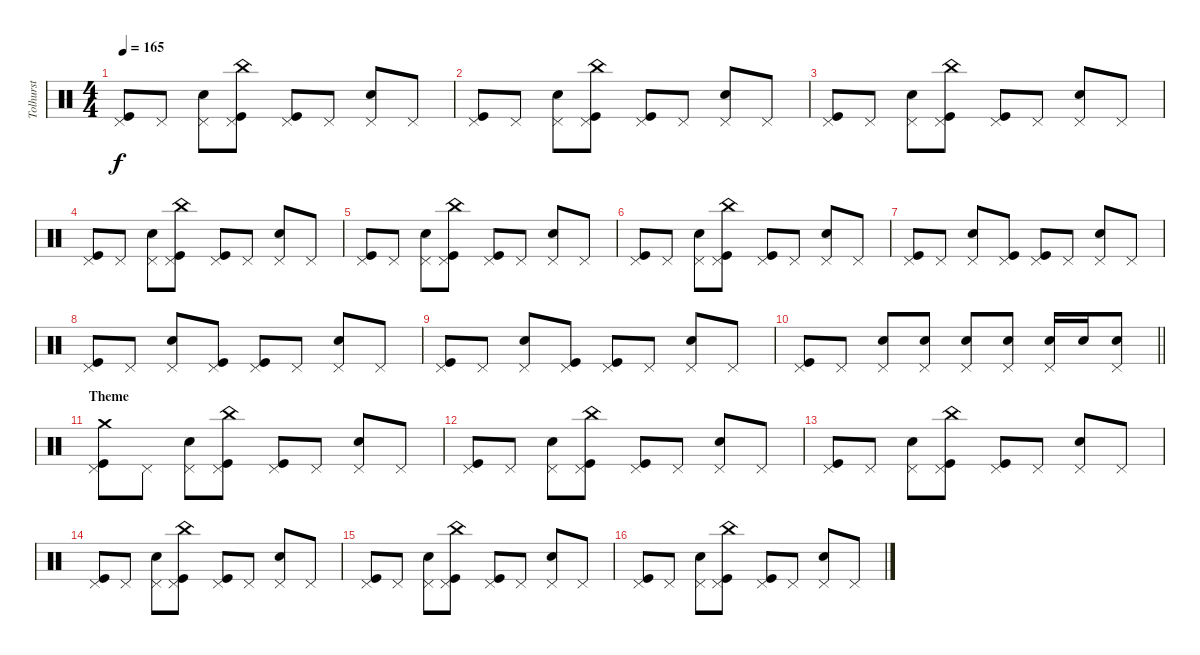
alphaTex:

\track ("Tolhurst" "Tolhurst") {instrument percussion}
\staff {score}
\articulation defaults
\ts (4 4)
\tempo 165
\clef neutral
\ks c
("Pedal Hi-Hat (hit)" "Kick (hit)").8{dy f} "Pedal Hi-Hat (hit)".8 ("Pedal Hi-Hat (hit)" "Snare (hit) 2").8 ("China (hit)" "Pedal Hi-Hat (hit)" "Kick (hit)").8 ("Pedal Hi-Hat (hit)" "Kick (hit)").8 "Pedal Hi-Hat (hit)".8 ("Pedal Hi-Hat (hit)" "Snare (hit) 2").8 "Pedal Hi-Hat (hit)".8 |
("Pedal Hi-Hat (hit)" "Kick (hit)").8 "Pedal Hi-Hat (hit)".8 ("Pedal Hi-Hat (hit)" "Snare (hit) 2").8 ("China (hit)" "Pedal Hi-Hat (hit)" "Kick (hit)").8 ("Pedal Hi-Hat (hit)" "Kick (hit)").8 "Pedal Hi-Hat (hit)".8 ("Pedal Hi-Hat (hit)" "Snare (hit) 2").8 "Pedal Hi-Hat (hit)".8 |
("Pedal Hi-Hat (hit)" "Kick (hit)").8 "Pedal Hi-Hat (hit)".8 ("Pedal Hi-Hat (hit)" "Snare (hit) 2").8 ("China (hit)" "Pedal Hi-Hat (hit)" "Kick (hit)").8 ("Pedal Hi-Hat (hit)" "Kick (hit)").8 "Pedal Hi-Hat (hit)".8 ("Pedal Hi-Hat (hit)" "Snare (hit) 2").8 "Pedal Hi-Hat (hit)".8 |
("Pedal Hi-Hat (hit)" "Kick (hit)").8 "Pedal Hi-Hat (hit)".8 ("Pedal Hi-Hat (hit)" "Snare (hit) 2").8 ("China (hit)" "Pedal Hi-Hat (hit)" "Kick (hit)").8 ("Pedal Hi-Hat (hit)" "Kick (hit)").8 "Pedal Hi-Hat (hit)".8 ("Pedal Hi-Hat (hit)" "Snare (hit) 2").8 "Pedal Hi-Hat (hit)".8 |
("Pedal Hi-Hat (hit)" "Kick (hit)").8 "Pedal Hi-Hat (hit)".8 ("Pedal Hi-Hat (hit)" "Snare (hit) 2").8 ("China (hit)" "Pedal Hi-Hat (hit)" "Kick (hit)").8 ("Pedal Hi-Hat (hit)" "Kick (hit)").8 "Pedal Hi-Hat (hit)".8 ("Pedal Hi-Hat (hit)" "Snare (hit) 2").8 "Pedal Hi-Hat (hit)".8 |
("Pedal Hi-Hat (hit)" "Kick (hit)").8 "Pedal Hi-Hat (hit)".8 ("Pedal Hi-Hat (hit)" "Snare (hit) 2").8 ("China (hit)" "Pedal Hi-Hat (hit)" "Kick (hit)").8 ("Pedal Hi-Hat (hit)" "Kick (hit)").8 "Pedal Hi-Hat (hit)".8 ("Pedal Hi-Hat (hit)" "Snare (hit) 2").8 "Pedal Hi-Hat (hit)".8 |
("Pedal Hi-Hat (hit)" "Kick (hit)").8 "Pedal Hi-Hat (hit)".8 ("Pedal Hi-Hat (hit)" "Snare (hit) 2").8 ("Pedal Hi-Hat (hit)" "Kick (hit)").8 ("Pedal Hi-Hat (hit)" "Kick (hit)").8 "Pedal Hi-Hat (hit)".8 ("Pedal Hi-Hat (hit)" "Snare (hit) 2").8 "Pedal Hi-Hat (hit)".8 |
("Pedal Hi-Hat (hit)" "Kick (hit)").8 "Pedal Hi-Hat (hit)".8 ("Pedal Hi-Hat (hit)" "Snare (hit) 2").8 ("Pedal Hi-Hat (hit)" "Kick (hit)").8 ("Pedal Hi-Hat (hit)" "Kick (hit)").8 "Pedal Hi-Hat (hit)".8 ("Pedal Hi-Hat (hit)" "Snare (hit) 2").8 "Pedal Hi-Hat (hit)".8 |
("Pedal Hi-Hat (hit)" "Kick (hit)").8 "Pedal Hi-Hat (hit)".8 ("Pedal Hi-Hat (hit)" "Snare (hit) 2").8 ("Pedal Hi-Hat (hit)" "Kick (hit)").8 ("Pedal Hi-Hat (hit)" "Kick (hit)").8 "Pedal Hi-Hat (hit)".8 ("Pedal Hi-Hat (hit)" "Snare (hit) 2").8 "Pedal Hi-Hat (hit)".8 |
\barLineRight lightlight
("Pedal Hi-Hat (hit)" "Kick (hit)").8 "Pedal Hi-Hat (hit)".8 ("Pedal Hi-Hat (hit)" "Snare (hit) 2").8 ("Pedal Hi-Hat (hit)" "Snare (hit) 2").8 ("Pedal Hi-Hat (hit)" "Snare (hit) 2").8 ("Pedal Hi-Hat (hit)" "Snare (hit) 2").8 ("Pedal Hi-Hat (hit)" "Snare (hit) 2").16 "Snare (hit) 2".16 ("Pedal Hi-Hat (hit)" "Snare (hit) 2").8 |
\section ("" "Theme")
("Crash medium (hit)" "Pedal Hi-Hat (hit)" "Kick (hit)").8 "Pedal Hi-Hat (hit)".8 ("Pedal Hi-Hat (hit)" "Snare (hit) 2").8 ("China (hit)" "Pedal Hi-Hat (hit)" "Kick (hit)").8 ("Pedal Hi-Hat (hit)" "Kick (hit)").8 "Pedal Hi-Hat (hit)".8 ("Pedal Hi-Hat (hit)" "Snare (hit) 2").8 "Pedal Hi-Hat (hit)".8 |
("Pedal Hi-Hat (hit)" "Kick (hit)").8 "Pedal Hi-Hat (hit)".8 ("Pedal Hi-Hat (hit)" "Snare (hit) 2").8 ("China (hit)" "Pedal Hi-Hat (hit)" "Kick (hit)").8 ("Pedal Hi-Hat (hit)" "Kick (hit)").8 "Pedal Hi-Hat (hit)".8 ("Pedal Hi-Hat (hit)" "Snare (hit) 2").8 "Pedal Hi-Hat (hit)".8 |
("Pedal Hi-Hat (hit)" "Kick (hit)").8 "Pedal Hi-Hat (hit)".8 ("Pedal Hi-Hat (hit)" "Snare (hit) 2").8 ("China (hit)" "Pedal Hi-Hat (hit)" "Kick (hit)").8 ("Pedal Hi-Hat (hit)" "Kick (hit)").8 "Pedal Hi-Hat (hit)".8 ("Pedal Hi-Hat (hit)" "Snare (hit) 2").8 "Pedal Hi-Hat (hit)".8 |
("Pedal Hi-Hat (hit)" "Kick (hit)").8 "Pedal Hi-Hat (hit)".8 ("Pedal Hi-Hat (hit)" "Snare (hit) 2").8 ("China (hit)" "Pedal Hi-Hat (hit)" "Kick (hit)").8 ("Pedal Hi-Hat (hit)" "Kick (hit)").8 "Pedal Hi-Hat (hit)".8 ("Pedal Hi-Hat (hit)" "Snare (hit) 2").8 "Pedal Hi-Hat (hit)".8 |
("Pedal Hi-Hat (hit)" "Kick (hit)").8 "Pedal Hi-Hat (hit)".8 ("Pedal Hi-Hat (hit)" "Snare (hit) 2").8 ("China (hit)" "Pedal Hi-Hat (hit)" "Kick (hit)").8 ("Pedal Hi-Hat (hit)" "Kick (hit)").8 "Pedal Hi-Hat (hit)".8 ("Pedal Hi-Hat (hit)" "Snare (hit) 2").8 "Pedal Hi-Hat (hit)".8 |
("Pedal Hi-Hat (hit)" "Kick (hit)").8 "Pedal Hi-Hat (hit)".8 ("Pedal Hi-Hat (hit)" "Snare (hit) 2").8 ("China (hit)" "Pedal Hi-Hat (hit)" "Kick (hit)").8 ("Pedal Hi-Hat (hit)" "Kick (hit)").8 "Pedal Hi-Hat (hit)".8 ("Pedal Hi-Hat (hit)" "Snare (hit) 2").8 "Pedal Hi-Hat (hit)".8
